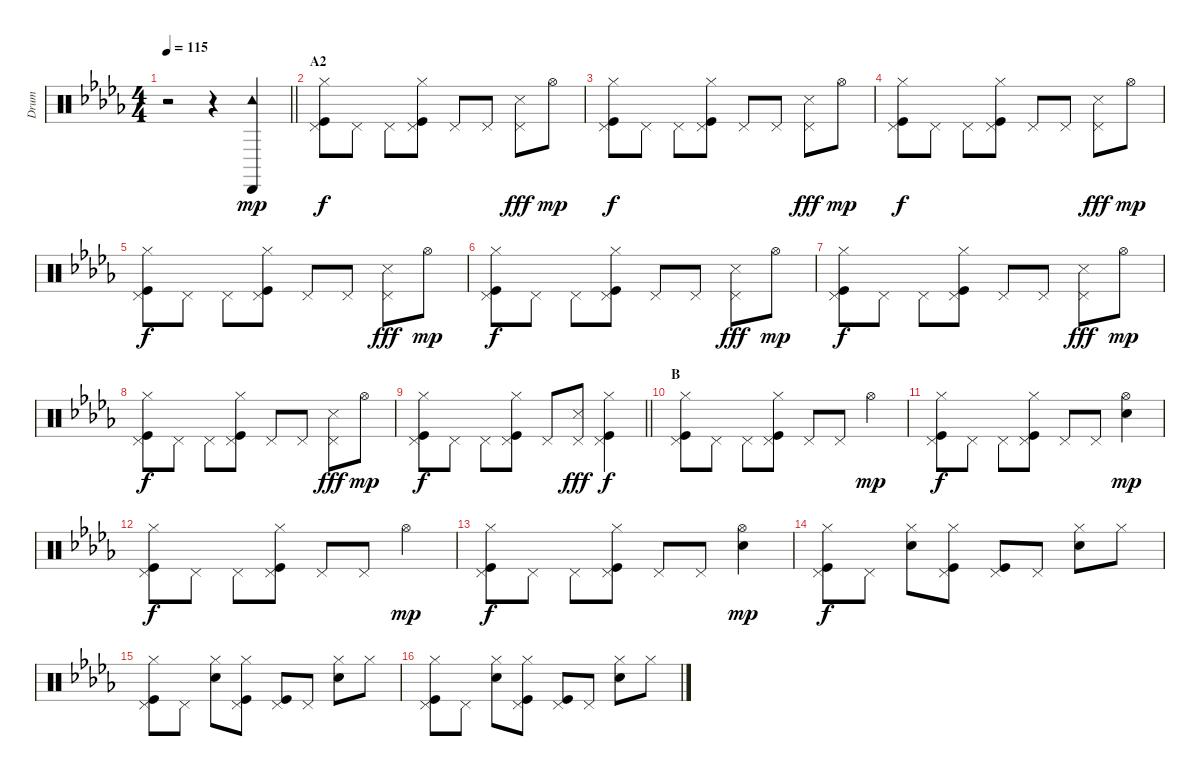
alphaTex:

\track ("Drum" "Drum") {instrument percussion}
\staff {score}
\articulation defaults
\ts (4 4)
\tempo 115
\clef neutral
\barLineRight lightlight
\ks db
r.2{dy mp} r.4 ("Cabasa (hit)" "Tambourine (hit)").4 |
\section ("" "A2")
("Hi-Hat (closed)" "Pedal Hi-Hat (hit)" "Kick (hit)").8{dy f} "Pedal Hi-Hat (hit)".8 "Pedal Hi-Hat (hit)".8 ("Hi-Hat (closed)" "Pedal Hi-Hat (hit)" "Kick (hit)").8 "Pedal Hi-Hat (hit)".8 "Pedal Hi-Hat (hit)".8 ("Snare (side stick) 3" "Pedal Hi-Hat (hit)").8{dy fff} "Hi-Hat (open)".8{dy mp} |
("Hi-Hat (closed)" "Pedal Hi-Hat (hit)" "Kick (hit)").8{dy f} "Pedal Hi-Hat (hit)".8 "Pedal Hi-Hat (hit)".8 ("Hi-Hat (closed)" "Pedal Hi-Hat (hit)" "Kick (hit)").8 "Pedal Hi-Hat (hit)".8 "Pedal Hi-Hat (hit)".8 ("Snare (side stick) 3" "Pedal Hi-Hat (hit)").8{dy fff} "Hi-Hat (open)".8{dy mp} |
("Hi-Hat (closed)" "Pedal Hi-Hat (hit)" "Kick (hit)").8{dy f} "Pedal Hi-Hat (hit)".8 "Pedal Hi-Hat (hit)".8 ("Hi-Hat (closed)" "Pedal Hi-Hat (hit)" "Kick (hit)").8 "Pedal Hi-Hat (hit)".8 "Pedal Hi-Hat (hit)".8 ("Snare (side stick) 3" "Pedal Hi-Hat (hit)").8{dy fff} "Hi-Hat (open)".8{dy mp} |
("Hi-Hat (closed)" "Pedal Hi-Hat (hit)" "Kick (hit)").8{dy f} "Pedal Hi-Hat (hit)".8 "Pedal Hi-Hat (hit)".8 ("Hi-Hat (closed)" "Pedal Hi-Hat (hit)" "Kick (hit)").8 "Pedal Hi-Hat (hit)".8 "Pedal Hi-Hat (hit)".8 ("Snare (side stick) 3" "Pedal Hi-Hat (hit)").8{dy fff} "Hi-Hat (open)".8{dy mp} |
("Hi-Hat (closed)" "Pedal Hi-Hat (hit)" "Kick (hit)").8{dy f} "Pedal Hi-Hat (hit)".8 "Pedal Hi-Hat (hit)".8 ("Hi-Hat (closed)" "Pedal Hi-Hat (hit)" "Kick (hit)").8 "Pedal Hi-Hat (hit)".8 "Pedal Hi-Hat (hit)".8 ("Snare (side stick) 3" "Pedal Hi-Hat (hit)").8{dy fff} "Hi-Hat (open)".8{dy mp} |
("Hi-Hat (closed)" "Pedal Hi-Hat (hit)" "Kick (hit)").8{dy f} "Pedal Hi-Hat (hit)".8 "Pedal Hi-Hat (hit)".8 ("Hi-Hat (closed)" "Pedal Hi-Hat (hit)" "Kick (hit)").8 "Pedal Hi-Hat (hit)".8 "Pedal Hi-Hat (hit)".8 ("Snare (side stick) 3" "Pedal Hi-Hat (hit)").8{dy fff} "Hi-Hat (open)".8{dy mp} |
("Hi-Hat (closed)" "Pedal Hi-Hat (hit)" "Kick (hit)").8{dy f} "Pedal Hi-Hat (hit)".8 "Pedal Hi-Hat (hit)".8 ("Hi-Hat (closed)" "Pedal Hi-Hat (hit)" "Kick (hit)").8 "Pedal Hi-Hat (hit)".8 "Pedal Hi-Hat (hit)".8 ("Snare (side stick) 3" "Pedal Hi-Hat (hit)").8{dy fff} "Hi-Hat (open)".8{dy mp} |
\barLineRight lightlight
("Hi-Hat (closed)" "Pedal Hi-Hat (hit)" "Kick (hit)").8{dy f} "Pedal Hi-Hat (hit)".8 "Pedal Hi-Hat (hit)".8 ("Hi-Hat (closed)" "Pedal Hi-Hat (hit)" "Kick (hit)").8 "Pedal Hi-Hat (hit)".8 ("Snare (side stick) 3" "Pedal Hi-Hat (hit)").8{dy fff} ("Hi-Hat (closed)" "Pedal Hi-Hat (hit)" "Kick (hit)").4{dy f} |
\section ("" "B")
("Hi-Hat (closed)" "Pedal Hi-Hat (hit)" "Kick (hit)").8 "Pedal Hi-Hat (hit)".8 "Pedal Hi-Hat (hit)".8 ("Hi-Hat (closed)" "Pedal Hi-Hat (hit)" "Kick (hit)").8 "Pedal Hi-Hat (hit)".8 "Pedal Hi-Hat (hit)".8 "Hi-Hat (open)".4{dy mp} |
("Hi-Hat (closed)" "Pedal Hi-Hat (hit)" "Kick (hit)").8{dy f} "Pedal Hi-Hat (hit)".8 "Pedal Hi-Hat (hit)".8 ("Hi-Hat (closed)" "Pedal Hi-Hat (hit)" "Kick (hit)").8 "Pedal Hi-Hat (hit)".8 "Pedal Hi-Hat (hit)".8 ("Hi-Hat (open)" "Snare (hit) 2").4{dy mp} |
("Hi-Hat (closed)" "Pedal Hi-Hat (hit)" "Kick (hit)").8{dy f} "Pedal Hi-Hat (hit)".8 "Pedal Hi-Hat (hit)".8 ("Hi-Hat (closed)" "Pedal Hi-Hat (hit)" "Kick (hit)").8 "Pedal Hi-Hat (hit)".8 "Pedal Hi-Hat (hit)".8 "Hi-Hat (open)".4{dy mp} |
("Hi-Hat (closed)" "Pedal Hi-Hat (hit)" "Kick (hit)").8{dy f} "Pedal Hi-Hat (hit)".8 "Pedal Hi-Hat (hit)".8 ("Hi-Hat (closed)" "Pedal Hi-Hat (hit)" "Kick (hit)").8 "Pedal Hi-Hat (hit)".8 "Pedal Hi-Hat (hit)".8 ("Hi-Hat (open)" "Snare (hit) 2").4{dy mp} |
("Hi-Hat (closed)" "Pedal Hi-Hat (hit)" "Kick (hit)").8{dy f} "Pedal Hi-Hat (hit)".8 ("Hi-Hat (closed)" "Snare (hit) 2").8 ("Hi-Hat (closed)" "Pedal Hi-Hat (hit)" "Kick (hit)").8 ("Kick (hit)" "Pedal Hi-Hat (hit)").8 "Pedal Hi-Hat (hit)".8 ("Hi-Hat (closed)" "Snare (hit) 2").8 "Hi-Hat (closed)".8 |
("Hi-Hat (closed)" "Pedal Hi-Hat (hit)" "Kick (hit)").8 "Pedal Hi-Hat (hit)".8 ("Hi-Hat (closed)" "Snare (hit) 2").8 ("Hi-Hat (closed)" "Pedal Hi-Hat (hit)" "Kick (hit)").8 ("Kick (hit)" "Pedal Hi-Hat (hit)").8 "Pedal Hi-Hat (hit)".8 ("Hi-Hat (closed)" "Snare (hit) 2").8 "Hi-Hat (closed)".8 |
("Hi-Hat (closed)" "Pedal Hi-Hat (hit)" "Kick (hit)").8 "Pedal Hi-Hat (hit)".8 ("Hi-Hat (closed)" "Snare (hit) 2").8 ("Hi-Hat (closed)" "Pedal Hi-Hat (hit)" "Kick (hit)").8 ("Kick (hit)" "Pedal Hi-Hat (hit)").8 "Pedal Hi-Hat (hit)".8 ("Hi-Hat (closed)" "Snare (hit) 2").8 "Hi-Hat (closed)".8
